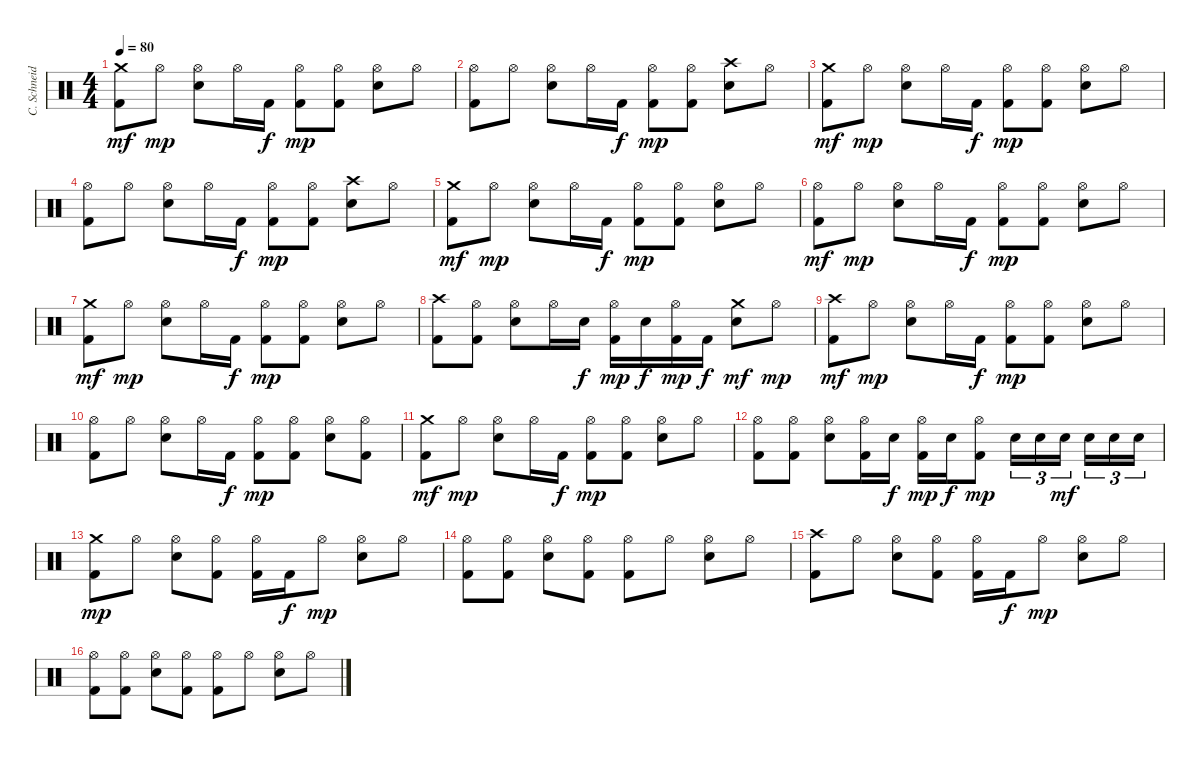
\track ("C. Schneider" "C. Schneid") {instrument percussion}
\staff {score}
\articulation defaults
\ts (4 4)
\tempo 80
\clef neutral
\ks c
("Crash medium (hit)" "Kick (hit) 2").8{dy mf} "Hi-Hat (open)".8{dy mp} ("Hi-Hat (open)" "Snare (hit) 2").8 "Hi-Hat (open)".16 "Kick (hit) 2".16{dy f} ("Hi-Hat (open)" "Kick (hit) 2").8{dy mp} ("Hi-Hat (open)" "Kick (hit) 2").8 ("Hi-Hat (open)" "Snare (hit) 2").8 "Hi-Hat (open)".8 |
("Hi-Hat (open)" "Kick (hit) 2").8 "Hi-Hat (open)".8 ("Hi-Hat (open)" "Snare (hit) 2").8 "Hi-Hat (open)".16 "Kick (hit) 2".16{dy f} ("Hi-Hat (open)" "Kick (hit) 2").8{dy mp} ("Hi-Hat (open)" "Kick (hit) 2").8 ("Crash high (hit)" "Snare (hit) 2").8 "Hi-Hat (open)".8 |
("Crash medium (hit)" "Kick (hit) 2").8{dy mf} "Hi-Hat (open)".8{dy mp} ("Hi-Hat (open)" "Snare (hit) 2").8 "Hi-Hat (open)".16 "Kick (hit) 2".16{dy f} ("Hi-Hat (open)" "Kick (hit) 2").8{dy mp} ("Hi-Hat (open)" "Kick (hit) 2").8 ("Hi-Hat (open)" "Snare (hit) 2").8 "Hi-Hat (open)".8 |
("Hi-Hat (open)" "Kick (hit) 2").8 "Hi-Hat (open)".8 ("Hi-Hat (open)" "Snare (hit) 2").8 "Hi-Hat (open)".16 "Kick (hit) 2".16{dy f} ("Hi-Hat (open)" "Kick (hit) 2").8{dy mp} ("Hi-Hat (open)" "Kick (hit) 2").8 ("Crash high (hit)" "Snare (hit) 2").8 "Hi-Hat (open)".8 |
("Crash medium (hit)" "Kick (hit) 2").8{dy mf} "Hi-Hat (open)".8{dy mp} ("Hi-Hat (open)" "Snare (hit) 2").8 "Hi-Hat (open)".16 "Kick (hit) 2".16{dy f} ("Hi-Hat (open)" "Kick (hit) 2").8{dy mp} ("Hi-Hat (open)" "Kick (hit) 2").8 ("Hi-Hat (open)" "Snare (hit) 2").8 "Hi-Hat (open)".8 |
("Hi-Hat (open)" "Kick (hit) 2").8{dy mf} "Hi-Hat (open)".8{dy mp} ("Hi-Hat (open)" "Snare (hit) 2").8 "Hi-Hat (open)".16 "Kick (hit) 2".16{dy f} ("Hi-Hat (open)" "Kick (hit) 2").8{dy mp} ("Hi-Hat (open)" "Kick (hit) 2").8 ("Hi-Hat (open)" "Snare (hit) 2").8 "Hi-Hat (open)".8 |
("Crash medium (hit)" "Kick (hit) 2").8{dy mf} "Hi-Hat (open)".8{dy mp} ("Hi-Hat (open)" "Snare (hit) 2").8 "Hi-Hat (open)".16 "Kick (hit) 2".16{dy f} ("Hi-Hat (open)" "Kick (hit) 2").8{dy mp} ("Hi-Hat (open)" "Kick (hit) 2").8 ("Hi-Hat (open)" "Snare (hit) 2").8 "Hi-Hat (open)".8 |
("Crash high (hit)" "Kick (hit) 2").8 ("Hi-Hat (open)" "Kick (hit) 2").8 ("Hi-Hat (open)" "Snare (hit) 2").8 "Hi-Hat (open)".16 "Snare (hit) 2".16{dy f} ("Hi-Hat (open)" "Kick (hit) 2").16{dy mp} "Snare (hit) 2".16{dy f} ("Hi-Hat (open)" "Kick (hit) 2").16{dy mp} "Kick (hit) 2".16{dy f} ("Crash medium (hit)" "Snare (hit) 2").8{dy mf} "Hi-Hat (open)".8{dy mp} |
("Crash high (hit)" "Kick (hit) 2").8{dy mf} "Hi-Hat (open)".8{dy mp} ("Hi-Hat (open)" "Snare (hit) 2").8 "Hi-Hat (open)".16 "Kick (hit) 2".16{dy f} ("Hi-Hat (open)" "Kick (hit) 2").8{dy mp} ("Hi-Hat (open)" "Kick (hit) 2").8 ("Hi-Hat (open)" "Snare (hit) 2").8 "Hi-Hat (open)".8 |
("Hi-Hat (open)" "Kick (hit) 2").8 "Hi-Hat (open)".8 ("Hi-Hat (open)" "Snare (hit) 2").8 "Hi-Hat (open)".16 "Kick (hit) 2".16{dy f} ("Hi-Hat (open)" "Kick (hit) 2").8{dy mp} ("Hi-Hat (open)" "Kick (hit) 2").8 ("Hi-Hat (open)" "Snare (hit) 2").8 ("Hi-Hat (open)" "Kick (hit) 2").8 |
("Crash medium (hit)" "Kick (hit) 2").8{dy mf} "Hi-Hat (open)".8{dy mp} ("Hi-Hat (open)" "Snare (hit) 2").8 "Hi-Hat (open)".16 "Kick (hit) 2".16{dy f} ("Hi-Hat (open)" "Kick (hit) 2").8{dy mp} ("Hi-Hat (open)" "Kick (hit) 2").8 ("Hi-Hat (open)" "Snare (hit) 2").8 "Hi-Hat (open)".8 |
("Hi-Hat (open)" "Kick (hit) 2").8 ("Hi-Hat (open)" "Kick (hit) 2").8 ("Hi-Hat (open)" "Snare (hit) 2").8 ("Hi-Hat (open)" "Kick (hit) 2").16 "Snare (hit) 2".16{dy f} ("Hi-Hat (open)" "Kick (hit) 2").16{dy mp} "Snare (hit) 2".16{dy f} ("Hi-Hat (open)" "Kick (hit) 2").8{dy mp} "Snare (hit) 2".16{tu (3 2)} "Snare (hit) 2".16{tu (3 2)} "Snare (hit) 2".16{tu (3 2) dy mf beam splitsecondary} "Snare (hit) 2".16{tu (3 2)} "Snare (hit) 2".16{tu (3 2)} "Snare (hit) 2".16{tu (3 2)} |
("Crash medium (hit)" "Kick (hit) 2").8{dy mp} "Hi-Hat (open)".8 ("Hi-Hat (open)" "Snare (hit) 2").8 ("Hi-Hat (open)" "Kick (hit) 2").8 ("Hi-Hat (open)" "Kick (hit) 2").16 "Kick (hit) 2".16{dy f} "Hi-Hat (open)".8{dy mp} ("Hi-Hat (open)" "Snare (hit) 2").8 "Hi-Hat (open)".8 |
("Hi-Hat (open)" "Kick (hit) 2").8 ("Hi-Hat (open)" "Kick (hit) 2").8 ("Hi-Hat (open)" "Snare (hit) 2").8 ("Hi-Hat (open)" "Kick (hit) 2").8 ("Hi-Hat (open)" "Kick (hit) 2").8 "Hi-Hat (open)".8 ("Hi-Hat (open)" "Snare (hit) 2").8 "Hi-Hat (open)".8 |
("Crash high (hit)" "Kick (hit) 2").8 "Hi-Hat (open)".8 ("Hi-Hat (open)" "Snare (hit) 2").8 ("Hi-Hat (open)" "Kick (hit) 2").8 ("Hi-Hat (open)" "Kick (hit) 2").16 "Kick (hit) 2".16{dy f} "Hi-Hat (open)".8{dy mp} ("Hi-Hat (open)" "Snare (hit) 2").8 "Hi-Hat (open)".8 |
("Hi-Hat (open)" "Kick (hit) 2").8 ("Hi-Hat (open)" "Kick (hit) 2").8 ("Hi-Hat (open)" "Snare (hit) 2").8 ("Hi-Hat (open)" "Kick (hit) 2").8 ("Hi-Hat (open)" "Kick (hit) 2").8 "Hi-Hat (open)".8 ("Hi-Hat (open)" "Snare (hit) 2").8 "Hi-Hat (open)".8
